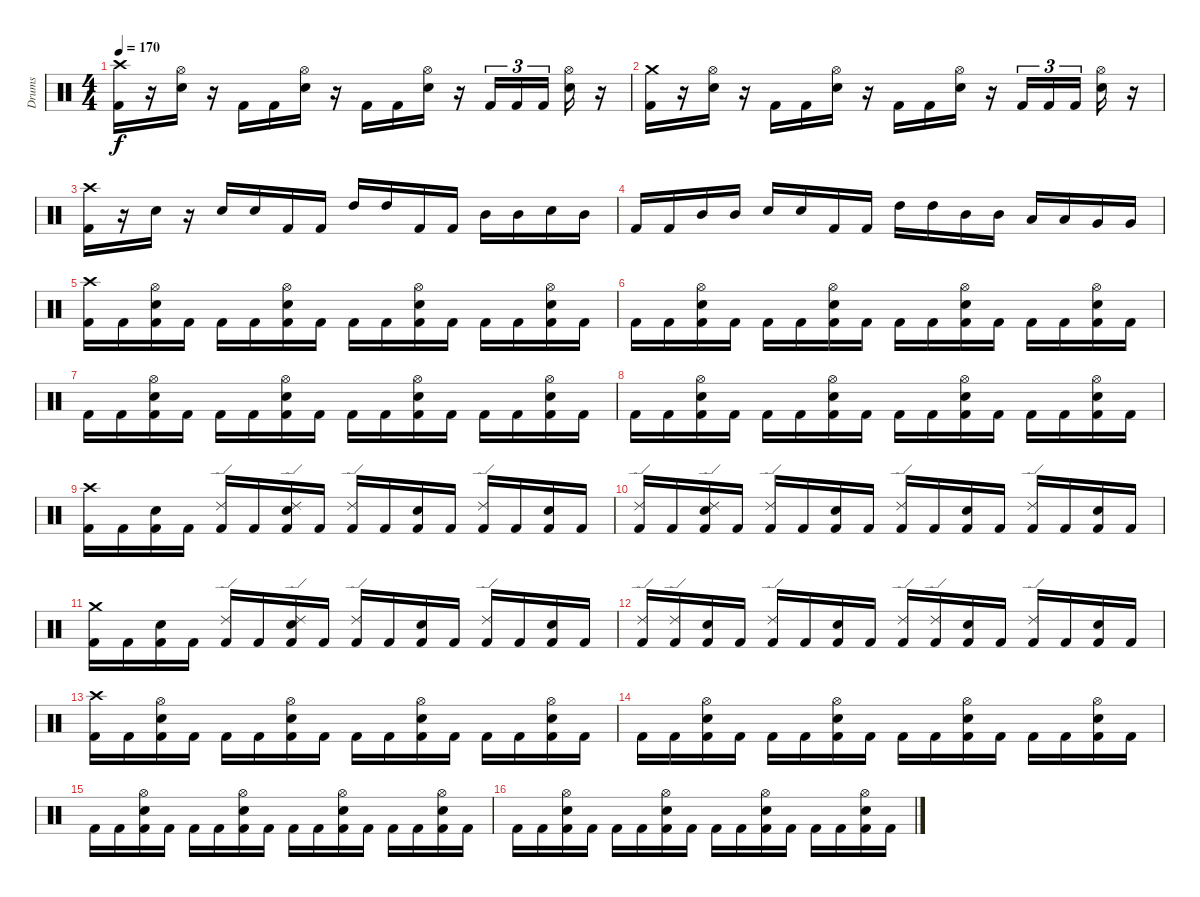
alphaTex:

\track ("Drums" "Drums") {instrument percussion}
\staff {score}
\articulation defaults
\ts (4 4)
\tempo 170
\clef neutral
\ks c
("Kick (hit) 2" "Crash high (hit)").16{dy f} r.16 ("Electric Snare (hit)" "Hi-Hat (open)").16 r.16 "Kick (hit) 2".16 "Kick (hit) 2".16 ("Electric Snare (hit)" "Hi-Hat (open)").16 r.16 "Kick (hit) 2".16 "Kick (hit) 2".16 ("Electric Snare (hit)" "Hi-Hat (open)").16 r.16 "Kick (hit) 2".16{tu (3 2)} "Kick (hit) 2".16{tu (3 2)} "Kick (hit) 2".16{tu (3 2)} ("Electric Snare (hit)" "Hi-Hat (open)").16 r.16 |
("Kick (hit) 2" "Crash medium (hit)").16 r.16 ("Electric Snare (hit)" "Hi-Hat (open)").16 r.16 "Kick (hit) 2".16 "Kick (hit) 2".16 ("Electric Snare (hit)" "Hi-Hat (open)").16 r.16 "Kick (hit) 2".16 "Kick (hit) 2".16 ("Electric Snare (hit)" "Hi-Hat (open)").16 r.16 "Kick (hit) 2".16{tu (3 2)} "Kick (hit) 2".16{tu (3 2)} "Kick (hit) 2".16{tu (3 2)} ("Electric Snare (hit)" "Hi-Hat (open)").16 r.16 |
("Kick (hit) 2" "Crash high (hit)").16 r.16 "Electric Snare (hit)".16 r.16 "Electric Snare (hit)".16 "Electric Snare (hit)".16 "Kick (hit) 2".16 "Kick (hit) 2".16 "High Tom (hit)".16 "High Tom (hit)".16 "Kick (hit) 2".16 "Kick (hit) 2".16 "Mid Tom (hit)".16 "Mid Tom (hit)".16 "Electric Snare (hit)".16 "Mid Tom (hit)".16 |
"Kick (hit) 2".16 "Kick (hit) 2".16 "Mid Tom (hit)".16 "Mid Tom (hit)".16 "Electric Snare (hit)".16 "Electric Snare (hit)".16 "Kick (hit) 2".16 "Kick (hit) 2".16 "High Tom (hit)".16 "High Tom (hit)".16 "Mid Tom (hit)".16 "Mid Tom (hit)".16 "Low Tom (hit)".16 "Low Tom (hit)".16 "Very Low Tom (hit)".16 "Very Low Tom (hit)".16 |
("Kick (hit) 2" "Crash high (hit)").16 "Kick (hit) 2".16 ("Kick (hit) 2" "Electric Snare (hit)" "Hi-Hat (open)").16 "Kick (hit) 2".16 "Kick (hit) 2".16 "Kick (hit) 2".16 ("Kick (hit) 2" "Electric Snare (hit)" "Hi-Hat (open)").16 "Kick (hit) 2".16 "Kick (hit) 2".16 "Kick (hit) 2".16 ("Kick (hit) 2" "Electric Snare (hit)" "Hi-Hat (open)").16 "Kick (hit) 2".16 "Kick (hit) 2".16 "Kick (hit) 2".16 ("Kick (hit) 2" "Electric Snare (hit)" "Hi-Hat (open)").16 "Kick (hit) 2".16 |
"Kick (hit) 2".16 "Kick (hit) 2".16 ("Kick (hit) 2" "Electric Snare (hit)" "Hi-Hat (open)").16 "Kick (hit) 2".16 "Kick (hit) 2".16 "Kick (hit) 2".16 ("Kick (hit) 2" "Electric Snare (hit)" "Hi-Hat (open)").16 "Kick (hit) 2".16 "Kick (hit) 2".16 "Kick (hit) 2".16 ("Kick (hit) 2" "Electric Snare (hit)" "Hi-Hat (open)").16 "Kick (hit) 2".16 "Kick (hit) 2".16 "Kick (hit) 2".16 ("Kick (hit) 2" "Electric Snare (hit)" "Hi-Hat (open)").16 "Kick (hit) 2".16 |
"Kick (hit) 2".16 "Kick (hit) 2".16 ("Kick (hit) 2" "Electric Snare (hit)" "Hi-Hat (open)").16 "Kick (hit) 2".16 "Kick (hit) 2".16 "Kick (hit) 2".16 ("Kick (hit) 2" "Electric Snare (hit)" "Hi-Hat (open)").16 "Kick (hit) 2".16 "Kick (hit) 2".16 "Kick (hit) 2".16 ("Kick (hit) 2" "Electric Snare (hit)" "Hi-Hat (open)").16 "Kick (hit) 2".16 "Kick (hit) 2".16 "Kick (hit) 2".16 ("Kick (hit) 2" "Electric Snare (hit)" "Hi-Hat (open)").16 "Kick (hit) 2".16 |
"Kick (hit) 2".16 "Kick (hit) 2".16 ("Kick (hit) 2" "Electric Snare (hit)" "Hi-Hat (open)").16 "Kick (hit) 2".16 "Kick (hit) 2".16 "Kick (hit) 2".16 ("Kick (hit) 2" "Electric Snare (hit)" "Hi-Hat (open)").16 "Kick (hit) 2".16 "Kick (hit) 2".16 "Kick (hit) 2".16 ("Kick (hit) 2" "Electric Snare (hit)" "Hi-Hat (open)").16 "Kick (hit) 2".16 "Kick (hit) 2".16 "Kick (hit) 2".16 ("Kick (hit) 2" "Electric Snare (hit)" "Hi-Hat (open)").16 "Kick (hit) 2".16 |
("Kick (hit) 2" "Crash high (hit)").16 "Kick (hit) 2".16 ("Kick (hit) 2" "Electric Snare (hit)").16 "Kick (hit) 2".16 ("Kick (hit) 2" "Ride (edge) 2").16 "Kick (hit) 2".16 ("Kick (hit) 2" "Electric Snare (hit)" "Ride (edge) 2").16 "Kick (hit) 2".16 ("Kick (hit) 2" "Ride (edge) 2").16 "Kick (hit) 2".16 ("Kick (hit) 2" "Electric Snare (hit)").16 "Kick (hit) 2".16 ("Kick (hit) 2" "Ride (edge) 2").16 "Kick (hit) 2".16 ("Kick (hit) 2" "Electric Snare (hit)").16 "Kick (hit) 2".16 |
("Kick (hit) 2" "Ride (edge) 2").16 "Kick (hit) 2".16 ("Kick (hit) 2" "Electric Snare (hit)" "Ride (edge) 2").16 "Kick (hit) 2".16 ("Kick (hit) 2" "Ride (edge) 2").16 "Kick (hit) 2".16 ("Kick (hit) 2" "Electric Snare (hit)").16 "Kick (hit) 2".16 ("Kick (hit) 2" "Ride (edge) 2").16 "Kick (hit) 2".16 ("Kick (hit) 2" "Electric Snare (hit)").16 "Kick (hit) 2".16 ("Kick (hit) 2" "Ride (edge) 2").16 "Kick (hit) 2".16 ("Kick (hit) 2" "Electric Snare (hit)").16 "Kick (hit) 2".16 |
("Kick (hit) 2" "Crash medium (hit)").16 "Kick (hit) 2".16 ("Kick (hit) 2" "Electric Snare (hit)").16 "Kick (hit) 2".16 ("Kick (hit) 2" "Ride (edge) 2").16 "Kick (hit) 2".16 ("Kick (hit) 2" "Electric Snare (hit)" "Ride (edge) 2").16 "Kick (hit) 2".16 ("Kick (hit) 2" "Ride (edge) 2").16 "Kick (hit) 2".16 ("Kick (hit) 2" "Electric Snare (hit)").16 "Kick (hit) 2".16 ("Kick (hit) 2" "Ride (edge) 2").16 "Kick (hit) 2".16 ("Kick (hit) 2" "Electric Snare (hit)").16 "Kick (hit) 2".16 |
("Kick (hit) 2" "Ride (edge) 2").16 ("Kick (hit) 2" "Ride (edge) 2").16 ("Kick (hit) 2" "Electric Snare (hit)").16 "Kick (hit) 2".16 ("Kick (hit) 2" "Ride (edge) 2").16 "Kick (hit) 2".16 ("Kick (hit) 2" "Electric Snare (hit)").16 "Kick (hit) 2".16 ("Kick (hit) 2" "Ride (edge) 2").16 ("Kick (hit) 2" "Ride (edge) 2").16 ("Kick (hit) 2" "Electric Snare (hit)").16 "Kick (hit) 2".16 ("Kick (hit) 2" "Ride (edge) 2").16 "Kick (hit) 2".16 ("Kick (hit) 2" "Electric Snare (hit)").16 "Kick (hit) 2".16 |
("Kick (hit) 2" "Crash high (hit)").16 "Kick (hit) 2".16 ("Kick (hit) 2" "Electric Snare (hit)" "Hi-Hat (open)").16 "Kick (hit) 2".16 "Kick (hit) 2".16 "Kick (hit) 2".16 ("Kick (hit) 2" "Electric Snare (hit)" "Hi-Hat (open)").16 "Kick (hit) 2".16 "Kick (hit) 2".16 "Kick (hit) 2".16 ("Kick (hit) 2" "Electric Snare (hit)" "Hi-Hat (open)").16 "Kick (hit) 2".16 "Kick (hit) 2".16 "Kick (hit) 2".16 ("Kick (hit) 2" "Electric Snare (hit)" "Hi-Hat (open)").16 "Kick (hit) 2".16 |
"Kick (hit) 2".16 "Kick (hit) 2".16 ("Kick (hit) 2" "Electric Snare (hit)" "Hi-Hat (open)").16 "Kick (hit) 2".16 "Kick (hit) 2".16 "Kick (hit) 2".16 ("Kick (hit) 2" "Electric Snare (hit)" "Hi-Hat (open)").16 "Kick (hit) 2".16 "Kick (hit) 2".16 "Kick (hit) 2".16 ("Kick (hit) 2" "Electric Snare (hit)" "Hi-Hat (open)").16 "Kick (hit) 2".16 "Kick (hit) 2".16 "Kick (hit) 2".16 ("Kick (hit) 2" "Electric Snare (hit)" "Hi-Hat (open)").16 "Kick (hit) 2".16 |
"Kick (hit) 2".16 "Kick (hit) 2".16 ("Kick (hit) 2" "Electric Snare (hit)" "Hi-Hat (open)").16 "Kick (hit) 2".16 "Kick (hit) 2".16 "Kick (hit) 2".16 ("Kick (hit) 2" "Electric Snare (hit)" "Hi-Hat (open)").16 "Kick (hit) 2".16 "Kick (hit) 2".16 "Kick (hit) 2".16 ("Kick (hit) 2" "Electric Snare (hit)" "Hi-Hat (open)").16 "Kick (hit) 2".16 "Kick (hit) 2".16 "Kick (hit) 2".16 ("Kick (hit) 2" "Electric Snare (hit)" "Hi-Hat (open)").16 "Kick (hit) 2".16 |
"Kick (hit) 2".16 "Kick (hit) 2".16 ("Kick (hit) 2" "Electric Snare (hit)" "Hi-Hat (open)").16 "Kick (hit) 2".16 "Kick (hit) 2".16 "Kick (hit) 2".16 ("Kick (hit) 2" "Electric Snare (hit)" "Hi-Hat (open)").16 "Kick (hit) 2".16 "Kick (hit) 2".16 "Kick (hit) 2".16 ("Kick (hit) 2" "Electric Snare (hit)" "Hi-Hat (open)").16 "Kick (hit) 2".16 "Kick (hit) 2".16 "Kick (hit) 2".16 ("Kick (hit) 2" "Electric Snare (hit)" "Hi-Hat (open)").16 "Kick (hit) 2".16
